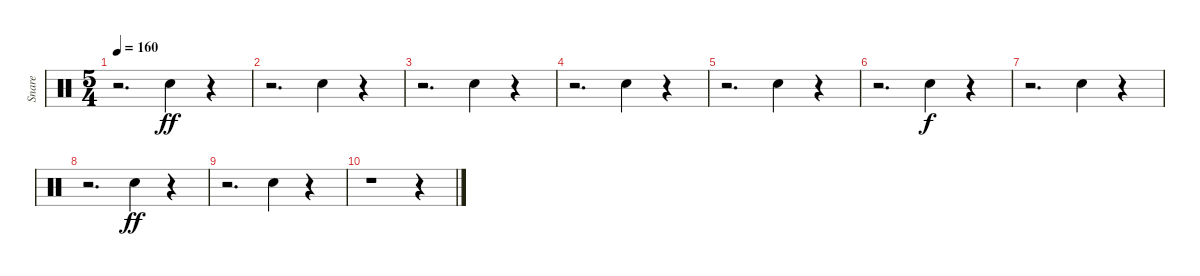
\track ("Snare" "Snare") {instrument percussion}
\staff {score}
\articulation defaults
\ts (5 4)
\tempo 160
\clef neutral
\ks c
r.2{d dy ff} "Snare (hit) 2".4 r.4 |
r.2{d} "Snare (hit) 2".4 r.4 |
r.2{d} "Snare (hit) 2".4 r.4 |
r.2{d} "Snare (hit) 2".4 r.4 |
r.2{d} "Snare (hit) 2".4 r.4 |
r.2{d} "Snare (hit) 2".4{dy f} r.4 |
r.2{d} "Snare (hit) 2".4 r.4 |
r.2{d} "Snare (hit) 2".4{dy ff} r.4 |
r.2{d} "Snare (hit) 2".4 r.4 |
r.1 r.4
